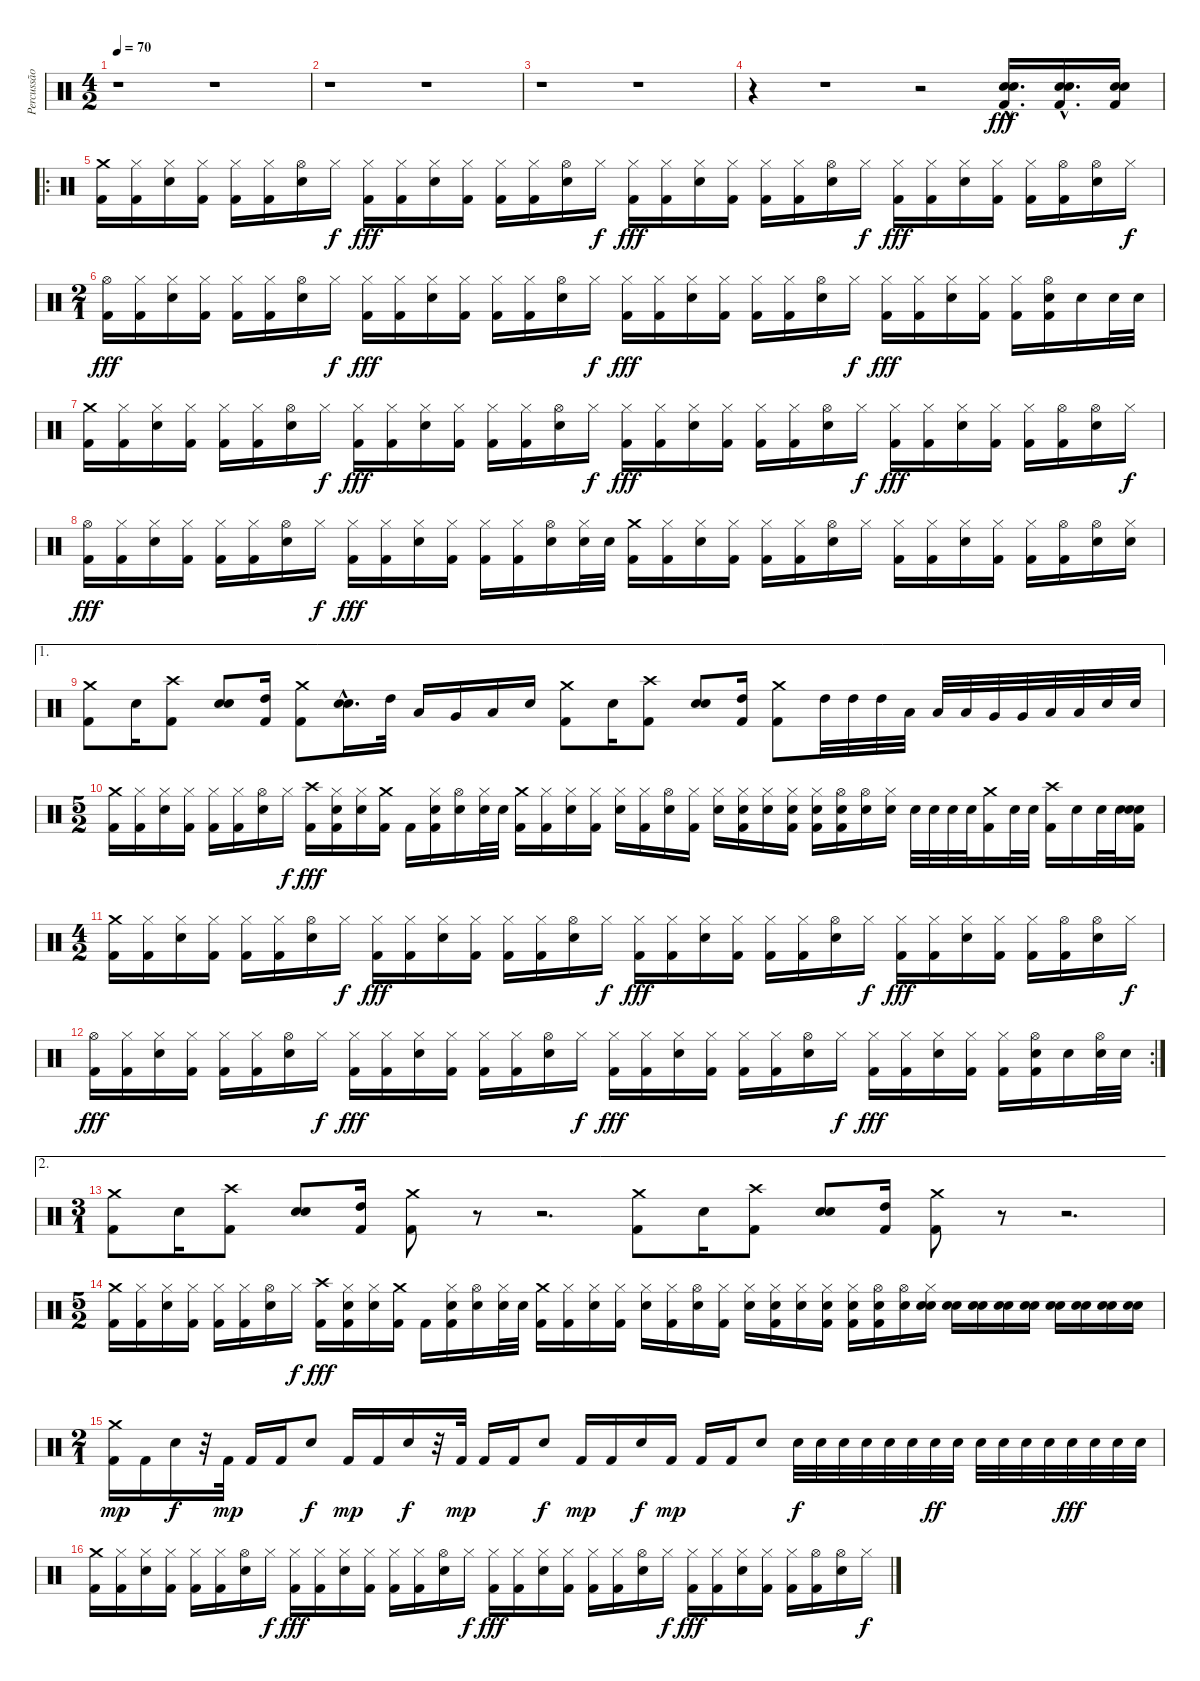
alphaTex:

\track ("Percussão" "Percussão") {instrument percussion}
\staff {score}
\articulation defaults
\ts (4 2)
\tempo 70
\clef neutral
\ks c
r.1{dy fff} r.1 |
r.1 r.1 |
r.1 r.1 |
r.4 r.1 r.2 ("Electric Snare (hit)"{hac} "Electric Snare (hit)"{hac} "Kick (hit) 2"{hac}).16{d} ("Electric Snare (hit)"{hac} "Electric Snare (hit)"{hac} "Kick (hit) 2"{hac}).16{d} ("Electric Snare (hit)" "Electric Snare (hit)" "Kick (hit) 2").16 |
\ro
("Crash medium (hit)" "Kick (hit) 2").16 ("Hi-Hat (closed)" "Kick (hit) 2").16 ("Hi-Hat (closed)" "Electric Snare (hit)").16 ("Hi-Hat (closed)" "Kick (hit) 2").16 ("Hi-Hat (closed)" "Kick (hit) 2").16 ("Hi-Hat (closed)" "Kick (hit) 2").16 ("Hi-Hat (open)" "Electric Snare (hit)").16 "Hi-Hat (closed)".16{dy f} ("Hi-Hat (closed)" "Kick (hit) 2").16{dy fff} ("Hi-Hat (closed)" "Kick (hit) 2").16 ("Hi-Hat (closed)" "Electric Snare (hit)").16 ("Hi-Hat (closed)" "Kick (hit) 2").16 ("Hi-Hat (closed)" "Kick (hit) 2").16 ("Hi-Hat (closed)" "Kick (hit) 2").16 ("Hi-Hat (open)" "Electric Snare (hit)").16 "Hi-Hat (closed)".16{dy f} ("Hi-Hat (closed)" "Kick (hit) 2").16{dy fff} ("Hi-Hat (closed)" "Kick (hit) 2").16 ("Hi-Hat (closed)" "Electric Snare (hit)").16 ("Hi-Hat (closed)" "Kick (hit) 2").16 ("Hi-Hat (closed)" "Kick (hit) 2").16 ("Hi-Hat (closed)" "Kick (hit) 2").16 ("Hi-Hat (open)" "Electric Snare (hit)").16 "Hi-Hat (closed)".16{dy f} ("Hi-Hat (closed)" "Kick (hit) 2").16{dy fff} ("Hi-Hat (closed)" "Kick (hit) 2").16 ("Hi-Hat (closed)" "Electric Snare (hit)").16 ("Hi-Hat (closed)" "Kick (hit) 2").16 ("Hi-Hat (closed)" "Kick (hit) 2").16 ("Hi-Hat (open)" "Kick (hit) 2").16 ("Hi-Hat (open)" "Electric Snare (hit)").16 "Hi-Hat (closed)".16{dy f} |
\ts (2 1)
("Hi-Hat (open)" "Kick (hit) 2").16{dy fff} ("Hi-Hat (closed)" "Kick (hit) 2").16 ("Hi-Hat (closed)" "Electric Snare (hit)").16 ("Hi-Hat (closed)" "Kick (hit) 2").16 ("Hi-Hat (closed)" "Kick (hit) 2").16 ("Hi-Hat (closed)" "Kick (hit) 2").16 ("Hi-Hat (open)" "Electric Snare (hit)").16 "Hi-Hat (closed)".16{dy f} ("Hi-Hat (closed)" "Kick (hit) 2").16{dy fff} ("Hi-Hat (closed)" "Kick (hit) 2").16 ("Hi-Hat (closed)" "Electric Snare (hit)").16 ("Hi-Hat (closed)" "Kick (hit) 2").16 ("Hi-Hat (closed)" "Kick (hit) 2").16 ("Hi-Hat (closed)" "Kick (hit) 2").16 ("Hi-Hat (open)" "Electric Snare (hit)").16 "Hi-Hat (closed)".16{dy f} ("Hi-Hat (closed)" "Kick (hit) 2").16{dy fff} ("Hi-Hat (closed)" "Kick (hit) 2").16 ("Hi-Hat (closed)" "Electric Snare (hit)").16 ("Hi-Hat (closed)" "Kick (hit) 2").16 ("Hi-Hat (closed)" "Kick (hit) 2").16 ("Hi-Hat (closed)" "Kick (hit) 2").16 ("Hi-Hat (open)" "Electric Snare (hit)").16 "Hi-Hat (closed)".16{dy f} ("Hi-Hat (closed)" "Kick (hit) 2").16{dy fff} ("Hi-Hat (closed)" "Kick (hit) 2").16 ("Hi-Hat (closed)" "Electric Snare (hit)").16 ("Hi-Hat (closed)" "Kick (hit) 2").16 ("Hi-Hat (closed)" "Kick (hit) 2").16 ("Hi-Hat (open)" "Electric Snare (hit)" "Kick (hit) 2").16 "Electric Snare (hit)".16 "Electric Snare (hit)".32 "Electric Snare (hit)".32 |
("Crash medium (hit)" "Kick (hit) 2").16 ("Hi-Hat (closed)" "Kick (hit) 2").16 ("Hi-Hat (closed)" "Electric Snare (hit)").16 ("Hi-Hat (closed)" "Kick (hit) 2").16 ("Hi-Hat (closed)" "Kick (hit) 2").16 ("Hi-Hat (closed)" "Kick (hit) 2").16 ("Hi-Hat (open)" "Electric Snare (hit)").16 "Hi-Hat (closed)".16{dy f} ("Hi-Hat (closed)" "Kick (hit) 2").16{dy fff} ("Hi-Hat (closed)" "Kick (hit) 2").16 ("Hi-Hat (closed)" "Electric Snare (hit)").16 ("Hi-Hat (closed)" "Kick (hit) 2").16 ("Hi-Hat (closed)" "Kick (hit) 2").16 ("Hi-Hat (closed)" "Kick (hit) 2").16 ("Hi-Hat (open)" "Electric Snare (hit)").16 "Hi-Hat (closed)".16{dy f} ("Hi-Hat (closed)" "Kick (hit) 2").16{dy fff} ("Hi-Hat (closed)" "Kick (hit) 2").16 ("Hi-Hat (closed)" "Electric Snare (hit)").16 ("Hi-Hat (closed)" "Kick (hit) 2").16 ("Hi-Hat (closed)" "Kick (hit) 2").16 ("Hi-Hat (closed)" "Kick (hit) 2").16 ("Hi-Hat (open)" "Electric Snare (hit)").16 "Hi-Hat (closed)".16{dy f} ("Hi-Hat (closed)" "Kick (hit) 2").16{dy fff} ("Hi-Hat (closed)" "Kick (hit) 2").16 ("Hi-Hat (closed)" "Electric Snare (hit)").16 ("Hi-Hat (closed)" "Kick (hit) 2").16 ("Hi-Hat (closed)" "Kick (hit) 2").16 ("Hi-Hat (open)" "Kick (hit) 2").16 ("Hi-Hat (open)" "Electric Snare (hit)").16 "Hi-Hat (closed)".16{dy f} |
("Hi-Hat (open)" "Kick (hit) 2").16{dy fff} ("Hi-Hat (closed)" "Kick (hit) 2").16 ("Hi-Hat (closed)" "Electric Snare (hit)").16 ("Hi-Hat (closed)" "Kick (hit) 2").16 ("Hi-Hat (closed)" "Kick (hit) 2").16 ("Hi-Hat (closed)" "Kick (hit) 2").16 ("Hi-Hat (open)" "Electric Snare (hit)").16 "Hi-Hat (closed)".16{dy f} ("Hi-Hat (closed)" "Kick (hit) 2").16{dy fff} ("Hi-Hat (closed)" "Kick (hit) 2").16 ("Hi-Hat (closed)" "Electric Snare (hit)").16 ("Hi-Hat (closed)" "Kick (hit) 2").16 ("Hi-Hat (closed)" "Kick (hit) 2").16 ("Hi-Hat (closed)" "Kick (hit) 2").16 ("Hi-Hat (open)" "Electric Snare (hit)").16 ("Hi-Hat (closed)" "Electric Snare (hit)").32 "Electric Snare (hit)".32 ("Crash medium (hit)" "Kick (hit) 2").16 ("Hi-Hat (closed)" "Kick (hit) 2").16 ("Hi-Hat (closed)" "Electric Snare (hit)").16 ("Hi-Hat (closed)" "Kick (hit) 2").16 ("Hi-Hat (closed)" "Kick (hit) 2").16 ("Hi-Hat (closed)" "Kick (hit) 2").16 ("Hi-Hat (open)" "Electric Snare (hit)").16 "Hi-Hat (closed)".16 ("Hi-Hat (closed)" "Kick (hit) 2").16 ("Hi-Hat (closed)" "Kick (hit) 2").16 ("Hi-Hat (closed)" "Electric Snare (hit)").16 ("Hi-Hat (closed)" "Kick (hit) 2").16 ("Hi-Hat (closed)" "Kick (hit) 2").16 ("Hi-Hat (open)" "Kick (hit) 2").16 ("Hi-Hat (open)" "Electric Snare (hit)").16 ("Hi-Hat (closed)" "Electric Snare (hit)").16 |
\ae 1
("Crash medium (hit)" "Kick (hit) 2").8 "Electric Snare (hit)".16 ("Crash high (hit)" "Kick (hit) 2").8 ("Electric Snare (hit)" "Electric Snare (hit)").8 ("High Tom (hit)" "Kick (hit) 2").16 ("Crash medium (hit)" "Kick (hit) 2").8 ("Electric Snare (hit)"{hac} "Electric Snare (hit)"{hac}).16{d} "High Tom (hit)".32 "Low Tom (hit)".16 "Very Low Tom (hit)".16 "Low Floor Tom (hit)".16 "Electric Snare (hit)".16 ("Crash medium (hit)" "Kick (hit) 2").8 "Electric Snare (hit)".16 ("Crash high (hit)" "Kick (hit) 2").8 ("Electric Snare (hit)" "Electric Snare (hit)").8 ("High Tom (hit)" "Kick (hit) 2").16 ("Crash medium (hit)" "Kick (hit) 2").8 "High Tom (hit)".32 "High Tom (hit)".32 "High Tom (hit)".32 "Low Tom (hit)".32 "Low Tom (hit)".32 "Low Tom (hit)".32 "Very Low Tom (hit)".32 "Very Low Tom (hit)".32 "Low Floor Tom (hit)".32 "Low Floor Tom (hit)".32 "Electric Snare (hit)".32 "Electric Snare (hit)".32 |
\ts (5 2)
("Crash medium (hit)" "Kick (hit) 2").16 ("Hi-Hat (closed)" "Kick (hit) 2").16 ("Hi-Hat (closed)" "Electric Snare (hit)").16 ("Hi-Hat (closed)" "Kick (hit) 2").16 ("Hi-Hat (closed)" "Kick (hit) 2").16 ("Hi-Hat (closed)" "Kick (hit) 2").16 ("Hi-Hat (open)" "Electric Snare (hit)").16 "Hi-Hat (closed)".16{dy f} ("Crash high (hit)" "Kick (hit) 2").16{dy fff} ("Hi-Hat (closed)" "Electric Snare (hit)" "Kick (hit) 2").16 ("Hi-Hat (closed)" "Electric Snare (hit)").16 ("Crash medium (hit)" "Kick (hit) 2").16 "Kick (hit) 2".16 ("Hi-Hat (closed)" "Electric Snare (hit)" "Kick (hit) 2").16 ("Hi-Hat (open)" "Electric Snare (hit)").16 ("Hi-Hat (closed)" "Electric Snare (hit)").32 "Electric Snare (hit)".32 ("Crash medium (hit)" "Kick (hit) 2").16 ("Hi-Hat (closed)" "Kick (hit) 2").16 ("Hi-Hat (closed)" "Electric Snare (hit)").16 ("Hi-Hat (closed)" "Kick (hit) 2").16 ("Hi-Hat (closed)" "Electric Snare (hit)").16 ("Hi-Hat (closed)" "Kick (hit) 2").16 ("Hi-Hat (open)" "Electric Snare (hit)").16 ("Hi-Hat (closed)" "Kick (hit) 2").16 ("Hi-Hat (closed)" "Electric Snare (hit)").16 ("Hi-Hat (closed)" "Electric Snare (hit)" "Kick (hit) 2").16 ("Hi-Hat (closed)" "Electric Snare (hit)").16 ("Hi-Hat (closed)" "Electric Snare (hit)" "Kick (hit) 2").16 ("Hi-Hat (closed)" "Electric Snare (hit)" "Kick (hit) 2").16 ("Hi-Hat (open)" "Electric Snare (hit)" "Kick (hit) 2").16 ("Hi-Hat (open)" "Electric Snare (hit)").16 ("Hi-Hat (closed)" "Electric Snare (hit)").16 "Electric Snare (hit)".32 "Electric Snare (hit)".32 "Electric Snare (hit)".32 "Electric Snare (hit)".32 ("Crash medium (hit)" "Kick (hit) 2").16 "Electric Snare (hit)".32 "Electric Snare (hit)".32 ("Crash high (hit)" "Kick (hit) 2").16 "Electric Snare (hit)".16 "Electric Snare (hit)".32 "Electric Snare (hit)".32 ("Electric Snare (hit)" "Electric Snare (hit)" "Kick (hit) 2").16 |
\ts (4 2)
("Crash medium (hit)" "Kick (hit) 2").16 ("Hi-Hat (closed)" "Kick (hit) 2").16 ("Hi-Hat (closed)" "Electric Snare (hit)").16 ("Hi-Hat (closed)" "Kick (hit) 2").16 ("Hi-Hat (closed)" "Kick (hit) 2").16 ("Hi-Hat (closed)" "Kick (hit) 2").16 ("Hi-Hat (open)" "Electric Snare (hit)").16 "Hi-Hat (closed)".16{dy f} ("Hi-Hat (closed)" "Kick (hit) 2").16{dy fff} ("Hi-Hat (closed)" "Kick (hit) 2").16 ("Hi-Hat (closed)" "Electric Snare (hit)").16 ("Hi-Hat (closed)" "Kick (hit) 2").16 ("Hi-Hat (closed)" "Kick (hit) 2").16 ("Hi-Hat (closed)" "Kick (hit) 2").16 ("Hi-Hat (open)" "Electric Snare (hit)").16 "Hi-Hat (closed)".16{dy f} ("Hi-Hat (closed)" "Kick (hit) 2").16{dy fff} ("Hi-Hat (closed)" "Kick (hit) 2").16 ("Hi-Hat (closed)" "Electric Snare (hit)").16 ("Hi-Hat (closed)" "Kick (hit) 2").16 ("Hi-Hat (closed)" "Kick (hit) 2").16 ("Hi-Hat (closed)" "Kick (hit) 2").16 ("Hi-Hat (open)" "Electric Snare (hit)").16 "Hi-Hat (closed)".16{dy f} ("Hi-Hat (closed)" "Kick (hit) 2").16{dy fff} ("Hi-Hat (closed)" "Kick (hit) 2").16 ("Hi-Hat (closed)" "Electric Snare (hit)").16 ("Hi-Hat (closed)" "Kick (hit) 2").16 ("Hi-Hat (closed)" "Kick (hit) 2").16 ("Hi-Hat (open)" "Kick (hit) 2").16 ("Hi-Hat (open)" "Electric Snare (hit)").16 "Hi-Hat (closed)".16{dy f} |
\rc 2
("Hi-Hat (open)" "Kick (hit) 2").16{dy fff} ("Hi-Hat (closed)" "Kick (hit) 2").16 ("Hi-Hat (closed)" "Electric Snare (hit)").16 ("Hi-Hat (closed)" "Kick (hit) 2").16 ("Hi-Hat (closed)" "Kick (hit) 2").16 ("Hi-Hat (closed)" "Kick (hit) 2").16 ("Hi-Hat (open)" "Electric Snare (hit)").16 "Hi-Hat (closed)".16{dy f} ("Hi-Hat (closed)" "Kick (hit) 2").16{dy fff} ("Hi-Hat (closed)" "Kick (hit) 2").16 ("Hi-Hat (closed)" "Electric Snare (hit)").16 ("Hi-Hat (closed)" "Kick (hit) 2").16 ("Hi-Hat (closed)" "Kick (hit) 2").16 ("Hi-Hat (closed)" "Kick (hit) 2").16 ("Hi-Hat (open)" "Electric Snare (hit)").16 "Hi-Hat (closed)".16{dy f} ("Hi-Hat (closed)" "Kick (hit) 2").16{dy fff} ("Hi-Hat (closed)" "Kick (hit) 2").16 ("Hi-Hat (closed)" "Electric Snare (hit)").16 ("Hi-Hat (closed)" "Kick (hit) 2").16 ("Hi-Hat (closed)" "Kick (hit) 2").16 ("Hi-Hat (closed)" "Kick (hit) 2").16 ("Hi-Hat (open)" "Electric Snare (hit)").16 "Hi-Hat (closed)".16{dy f} ("Hi-Hat (closed)" "Kick (hit) 2").16{dy fff} ("Hi-Hat (closed)" "Kick (hit) 2").16 ("Hi-Hat (closed)" "Electric Snare (hit)").16 ("Hi-Hat (closed)" "Kick (hit) 2").16 ("Hi-Hat (closed)" "Kick (hit) 2").16 ("Hi-Hat (open)" "Electric Snare (hit)" "Kick (hit) 2").16 "Electric Snare (hit)".16 ("Hi-Hat (open)" "Electric Snare (hit)").32 "Electric Snare (hit)".32 |
\ae 2
\ts (3 1)
("Crash medium (hit)" "Kick (hit) 2").8 "Electric Snare (hit)".16 ("Crash high (hit)" "Kick (hit) 2").8 ("Electric Snare (hit)" "Electric Snare (hit)").8 ("High Tom (hit)" "Kick (hit) 2").16 ("Crash medium (hit)" "Kick (hit) 2").8 r.8 r.2{d} ("Crash medium (hit)" "Kick (hit) 2").8 "Electric Snare (hit)".16 ("Crash high (hit)" "Kick (hit) 2").8 ("Electric Snare (hit)" "Electric Snare (hit)").8 ("High Tom (hit)" "Kick (hit) 2").16 ("Crash medium (hit)" "Kick (hit) 2").8 r.8 r.2{d} |
\ts (5 2)
("Crash medium (hit)" "Kick (hit) 2").16 ("Hi-Hat (closed)" "Kick (hit) 2").16 ("Hi-Hat (closed)" "Electric Snare (hit)").16 ("Hi-Hat (closed)" "Kick (hit) 2").16 ("Hi-Hat (closed)" "Kick (hit) 2").16 ("Hi-Hat (closed)" "Kick (hit) 2").16 ("Hi-Hat (open)" "Electric Snare (hit)").16 "Hi-Hat (closed)".16{dy f} ("Crash high (hit)" "Kick (hit) 2").16{dy fff} ("Hi-Hat (closed)" "Electric Snare (hit)" "Kick (hit) 2").16 ("Hi-Hat (closed)" "Electric Snare (hit)").16 ("Crash medium (hit)" "Kick (hit) 2").16 "Kick (hit) 2".16 ("Hi-Hat (closed)" "Electric Snare (hit)" "Kick (hit) 2").16 ("Hi-Hat (open)" "Electric Snare (hit)").16 ("Hi-Hat (closed)" "Electric Snare (hit)").32 "Electric Snare (hit)".32 ("Crash medium (hit)" "Kick (hit) 2").16 ("Hi-Hat (closed)" "Kick (hit) 2").16 ("Hi-Hat (closed)" "Electric Snare (hit)").16 ("Hi-Hat (closed)" "Kick (hit) 2").16 ("Hi-Hat (closed)" "Electric Snare (hit)").16 ("Hi-Hat (closed)" "Kick (hit) 2").16 ("Hi-Hat (open)" "Electric Snare (hit)").16 ("Hi-Hat (closed)" "Kick (hit) 2").16 ("Hi-Hat (closed)" "Electric Snare (hit)").16 ("Hi-Hat (closed)" "Electric Snare (hit)" "Kick (hit) 2").16 ("Hi-Hat (closed)" "Electric Snare (hit)").16 ("Hi-Hat (closed)" "Electric Snare (hit)" "Kick (hit) 2").16 ("Hi-Hat (closed)" "Electric Snare (hit)" "Kick (hit) 2").16 ("Hi-Hat (open)" "Electric Snare (hit)" "Kick (hit) 2").16 ("Hi-Hat (open)" "Electric Snare (hit)").16 ("Hi-Hat (closed)" "Electric Snare (hit)" "Electric Snare (hit)").16 ("Electric Snare (hit)" "Electric Snare (hit)").16 ("Electric Snare (hit)" "Electric Snare (hit)").16 ("Electric Snare (hit)" "Electric Snare (hit)").16 ("Electric Snare (hit)" "Electric Snare (hit)").16 ("Electric Snare (hit)" "Electric Snare (hit)").16 ("Electric Snare (hit)" "Electric Snare (hit)").16 ("Electric Snare (hit)" "Electric Snare (hit)").16 ("Electric Snare (hit)" "Electric Snare (hit)").16 |
\ts (2 1)
("Crash medium (hit)" "Kick (hit) 2").16{dy mp} "Kick (hit) 2".16 "Electric Snare (hit)".16{dy f} r.32 "Kick (hit) 2".32{dy mp} "Kick (hit) 2".16 "Kick (hit) 2".16 "Electric Snare (hit)".8{dy f} "Kick (hit) 2".16{dy mp} "Kick (hit) 2".16 "Electric Snare (hit)".16{dy f} r.32 "Kick (hit) 2".32{dy mp} "Kick (hit) 2".16 "Kick (hit) 2".16 "Electric Snare (hit)".8{dy f} "Kick (hit) 2".16{dy mp} "Kick (hit) 2".16 "Electric Snare (hit)".16{dy f} "Kick (hit) 2".16{dy mp} "Kick (hit) 2".16 "Kick (hit) 2".16 "Electric Snare (hit)".8 "Electric Snare (hit)".32{dy f} "Electric Snare (hit)".32 "Electric Snare (hit)".32 "Electric Snare (hit)".32 "Electric Snare (hit)".32 "Electric Snare (hit)".32 "Electric Snare (hit)".32{dy ff} "Electric Snare (hit)".32 "Electric Snare (hit)".32 "Electric Snare (hit)".32 "Electric Snare (hit)".32 "Electric Snare (hit)".32 "Electric Snare (hit)".32{dy fff} "Electric Snare (hit)".32 "Electric Snare (hit)".32 "Electric Snare (hit)".32 |
("Crash medium (hit)" "Kick (hit) 2").16 ("Hi-Hat (closed)" "Kick (hit) 2").16 ("Hi-Hat (closed)" "Electric Snare (hit)").16 ("Hi-Hat (closed)" "Kick (hit) 2").16 ("Hi-Hat (closed)" "Kick (hit) 2").16 ("Hi-Hat (closed)" "Kick (hit) 2").16 ("Hi-Hat (open)" "Electric Snare (hit)").16 "Hi-Hat (closed)".16{dy f} ("Hi-Hat (closed)" "Kick (hit) 2").16{dy fff} ("Hi-Hat (closed)" "Kick (hit) 2").16 ("Hi-Hat (closed)" "Electric Snare (hit)").16 ("Hi-Hat (closed)" "Kick (hit) 2").16 ("Hi-Hat (closed)" "Kick (hit) 2").16 ("Hi-Hat (closed)" "Kick (hit) 2").16 ("Hi-Hat (open)" "Electric Snare (hit)").16 "Hi-Hat (closed)".16{dy f} ("Hi-Hat (closed)" "Kick (hit) 2").16{dy fff} ("Hi-Hat (closed)" "Kick (hit) 2").16 ("Hi-Hat (closed)" "Electric Snare (hit)").16 ("Hi-Hat (closed)" "Kick (hit) 2").16 ("Hi-Hat (closed)" "Kick (hit) 2").16 ("Hi-Hat (closed)" "Kick (hit) 2").16 ("Hi-Hat (open)" "Electric Snare (hit)").16 "Hi-Hat (closed)".16{dy f} ("Hi-Hat (closed)" "Kick (hit) 2").16{dy fff} ("Hi-Hat (closed)" "Kick (hit) 2").16 ("Hi-Hat (closed)" "Electric Snare (hit)").16 ("Hi-Hat (closed)" "Kick (hit) 2").16 ("Hi-Hat (closed)" "Kick (hit) 2").16 ("Hi-Hat (open)" "Kick (hit) 2").16 ("Hi-Hat (open)" "Electric Snare (hit)").16 "Hi-Hat (closed)".16{dy f}
